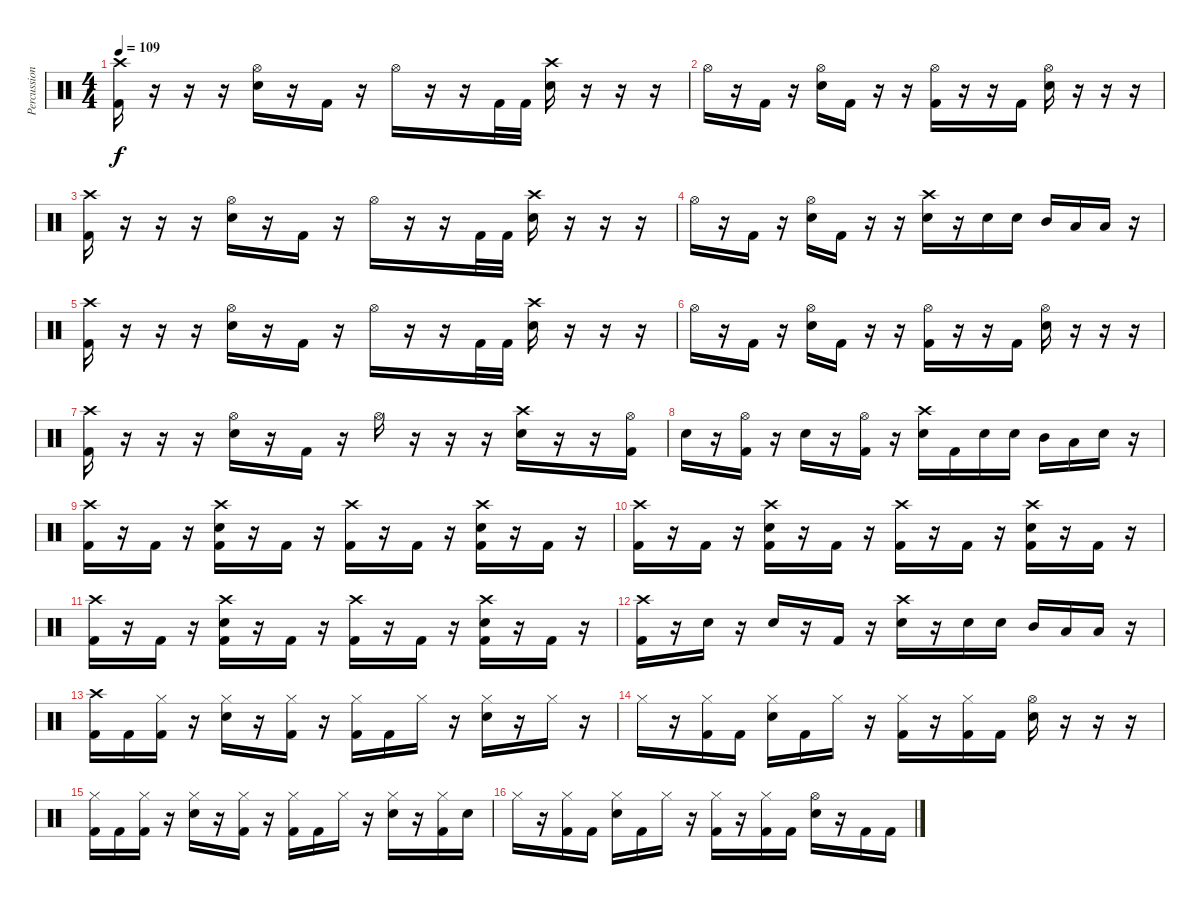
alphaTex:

\track ("Percussion" "Percussion") {instrument percussion}
\staff {score}
\articulation defaults
\ts (4 4)
\tempo 109
\clef neutral
\ks c
("Crash high (hit)" "Kick (hit) 2").16{dy f} r.16 r.16 r.16 ("Hi-Hat (open)" "Snare (hit) 2").16 r.16 "Kick (hit) 2".16 r.16 "Hi-Hat (open)".16 r.16 r.16 "Kick (hit) 2".32 "Kick (hit) 2".32 ("Crash high (hit)" "Snare (hit) 2").16 r.16 r.16 r.16 |
"Hi-Hat (open)".16 r.16 "Kick (hit) 2".16 r.16 ("Hi-Hat (open)" "Snare (hit) 2").16 "Kick (hit) 2".16 r.16 r.16 ("Hi-Hat (open)" "Kick (hit) 2").16 r.16 r.16 "Kick (hit) 2".16 ("Hi-Hat (open)" "Snare (hit) 2").16 r.16 r.16 r.16 |
("Crash high (hit)" "Kick (hit) 2").16 r.16 r.16 r.16 ("Hi-Hat (open)" "Snare (hit) 2").16 r.16 "Kick (hit) 2".16 r.16 "Hi-Hat (open)".16 r.16 r.16 "Kick (hit) 2".32 "Kick (hit) 2".32 ("Crash high (hit)" "Snare (hit) 2").16 r.16 r.16 r.16 |
"Hi-Hat (open)".16 r.16 "Kick (hit) 2".16 r.16 ("Hi-Hat (open)" "Snare (hit) 2").16 "Kick (hit) 2".16 r.16 r.16 ("Crash high (hit)" "Snare (hit) 2").16 r.16 "Snare (hit) 2".16 "Snare (hit) 2".16 "Mid Tom (hit)".16 "Low Tom (hit)".16 "Low Tom (hit)".16 r.16 |
("Crash high (hit)" "Kick (hit) 2").16 r.16 r.16 r.16 ("Hi-Hat (open)" "Snare (hit) 2").16 r.16 "Kick (hit) 2".16 r.16 "Hi-Hat (open)".16 r.16 r.16 "Kick (hit) 2".32 "Kick (hit) 2".32 ("Crash high (hit)" "Snare (hit) 2").16 r.16 r.16 r.16 |
"Hi-Hat (open)".16 r.16 "Kick (hit) 2".16 r.16 ("Hi-Hat (open)" "Snare (hit) 2").16 "Kick (hit) 2".16 r.16 r.16 ("Hi-Hat (open)" "Kick (hit) 2").16 r.16 r.16 "Kick (hit) 2".16 ("Hi-Hat (open)" "Snare (hit) 2").16 r.16 r.16 r.16 |
("Crash high (hit)" "Kick (hit) 2").16 r.16 r.16 r.16 ("Hi-Hat (open)" "Snare (hit) 2").16 r.16 "Kick (hit) 2".16 r.16 "Hi-Hat (open)".16 r.16 r.16 r.16 ("Crash high (hit)" "Snare (hit) 2").16 r.16 r.16 ("Hi-Hat (open)" "Kick (hit) 2").16 |
"Snare (hit) 2".16 r.16 ("Hi-Hat (open)" "Kick (hit) 2").16 r.16 "Snare (hit) 2".16 r.16 ("Hi-Hat (open)" "Kick (hit) 2").16 r.16 ("Crash high (hit)" "Snare (hit) 2").16 "Kick (hit) 2".16 "Snare (hit) 2".16 "Snare (hit) 2".16 "Mid Tom (hit)".16 "Low Tom (hit)".16 "Snare (hit) 2".16 r.16 |
("Crash high (hit)" "Kick (hit) 2").16 r.16 "Kick (hit) 2".16 r.16 ("Crash high (hit)" "Snare (hit) 2" "Kick (hit) 2").16 r.16 "Kick (hit) 2".16 r.16 ("Crash high (hit)" "Kick (hit) 2").16 r.16 "Kick (hit) 2".16 r.16 ("Crash high (hit)" "Snare (hit) 2" "Kick (hit) 2").16 r.16 "Kick (hit) 2".16 r.16 |
("Crash high (hit)" "Kick (hit) 2").16 r.16 "Kick (hit) 2".16 r.16 ("Crash high (hit)" "Snare (hit) 2" "Kick (hit) 2").16 r.16 "Kick (hit) 2".16 r.16 ("Crash high (hit)" "Kick (hit) 2").16 r.16 "Kick (hit) 2".16 r.16 ("Crash high (hit)" "Snare (hit) 2" "Kick (hit) 2").16 r.16 "Kick (hit) 2".16 r.16 |
("Crash high (hit)" "Kick (hit) 2").16 r.16 "Kick (hit) 2".16 r.16 ("Crash high (hit)" "Snare (hit) 2" "Kick (hit) 2").16 r.16 "Kick (hit) 2".16 r.16 ("Crash high (hit)" "Kick (hit) 2").16 r.16 "Kick (hit) 2".16 r.16 ("Crash high (hit)" "Snare (hit) 2" "Kick (hit) 2").16 r.16 "Kick (hit) 2".16 r.16 |
("Crash high (hit)" "Kick (hit) 2").16 r.16 "Snare (hit) 2".16 r.16 "Snare (hit) 2".16 r.16 "Kick (hit) 2".16 r.16 ("Crash high (hit)" "Snare (hit) 2").16 r.16 "Snare (hit) 2".16 "Snare (hit) 2".16 "Mid Tom (hit)".16 "Low Tom (hit)".16 "Low Tom (hit)".16 r.16 |
("Crash high (hit)" "Kick (hit) 2").16 "Kick (hit) 2".16 ("Hi-Hat (closed)" "Kick (hit) 2").16 r.16 ("Hi-Hat (closed)" "Snare (hit) 2").16 r.16 ("Hi-Hat (closed)" "Kick (hit) 2").16 r.16 ("Hi-Hat (closed)" "Kick (hit) 2").16 "Kick (hit) 2".16 "Hi-Hat (closed)".16 r.16 ("Hi-Hat (closed)" "Snare (hit) 2").16 r.16 "Hi-Hat (closed)".16 r.16 |
"Hi-Hat (closed)".16 r.16 ("Hi-Hat (closed)" "Kick (hit) 2").16 "Kick (hit) 2".16 ("Hi-Hat (closed)" "Snare (hit) 2").16 "Kick (hit) 2".16 "Hi-Hat (closed)".16 r.16 ("Hi-Hat (closed)" "Kick (hit) 2").16 r.16 ("Hi-Hat (closed)" "Kick (hit) 2").16 "Kick (hit) 2".16 ("Hi-Hat (open)" "Snare (hit) 2").16 r.16 r.16 r.16 |
("Hi-Hat (closed)" "Kick (hit) 2").16 "Kick (hit) 2".16 ("Hi-Hat (closed)" "Kick (hit) 2").16 r.16 ("Hi-Hat (closed)" "Snare (hit) 2").16 r.16 ("Hi-Hat (closed)" "Kick (hit) 2").16 r.16 ("Hi-Hat (closed)" "Kick (hit) 2").16 "Kick (hit) 2".16 "Hi-Hat (closed)".16 r.16 ("Hi-Hat (closed)" "Snare (hit) 2").16 r.16 ("Hi-Hat (closed)" "Kick (hit) 2").16 "Snare (hit) 2".16 |
"Hi-Hat (closed)".16 r.16 ("Hi-Hat (closed)" "Kick (hit) 2").16 "Kick (hit) 2".16 ("Hi-Hat (closed)" "Snare (hit) 2").16 "Kick (hit) 2".16 "Hi-Hat (closed)".16 r.16 ("Hi-Hat (closed)" "Kick (hit) 2").16 r.16 ("Hi-Hat (closed)" "Kick (hit) 2").16 "Kick (hit) 2".16 ("Hi-Hat (open)" "Snare (hit) 2").16 r.16 "Kick (hit) 2".16 "Kick (hit) 2".16
